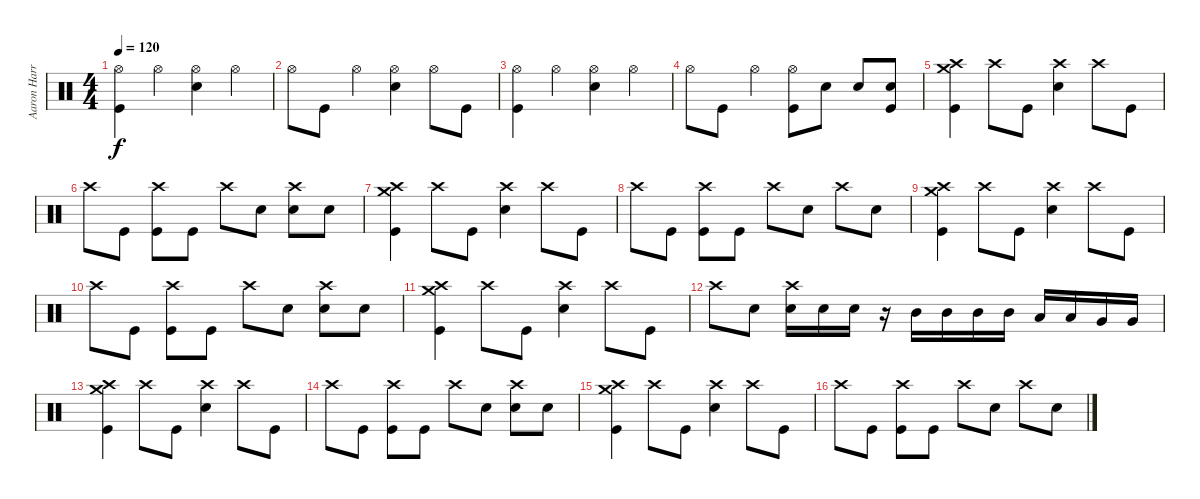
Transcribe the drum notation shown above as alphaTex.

\track ("Aaron Harris" "Aaron Harr") {instrument percussion}
\staff {score}
\articulation defaults
\ts (4 4)
\tempo 120
\clef neutral
\ks c
("Hi-Hat (open)" "Kick (hit)").4{dy f} "Hi-Hat (open)".4 ("Hi-Hat (open)" "Snare (hit) 2").4 "Hi-Hat (open)".4 |
"Hi-Hat (open)".8 "Kick (hit)".8 "Hi-Hat (open)".4 ("Hi-Hat (open)" "Snare (hit) 2").4 "Hi-Hat (open)".8 "Kick (hit)".8 |
("Hi-Hat (open)" "Kick (hit)").4 "Hi-Hat (open)".4 ("Hi-Hat (open)" "Snare (hit) 2").4 "Hi-Hat (open)".4 |
"Hi-Hat (open)".8 "Kick (hit)".8 "Hi-Hat (open)".4 ("Hi-Hat (open)" "Kick (hit)").8 "Snare (hit) 2".8 "Snare (hit) 2".8 ("Snare (hit) 2" "Kick (hit)").8 |
("Crash high (hit)" "Crash medium (hit)" "Kick (hit)").4 "Crash high (hit)".8 "Kick (hit)".8 ("Crash high (hit)" "Snare (hit) 2").4 "Crash high (hit)".8 "Kick (hit)".8 |
"Crash high (hit)".8 "Kick (hit)".8 ("Crash high (hit)" "Kick (hit)").8 "Kick (hit)".8 "Crash high (hit)".8 "Snare (hit) 2".8 ("Crash high (hit)" "Snare (hit) 2").8 "Snare (hit) 2".8 |
("Crash high (hit)" "Crash medium (hit)" "Kick (hit)").4 "Crash high (hit)".8 "Kick (hit)".8 ("Crash high (hit)" "Snare (hit) 2").4 "Crash high (hit)".8 "Kick (hit)".8 |
"Crash high (hit)".8 "Kick (hit)".8 ("Crash high (hit)" "Kick (hit)").8 "Kick (hit)".8 "Crash high (hit)".8 "Snare (hit) 2".8 "Crash high (hit)".8 "Snare (hit) 2".8 |
("Crash high (hit)" "Crash medium (hit)" "Kick (hit)").4 "Crash high (hit)".8 "Kick (hit)".8 ("Crash high (hit)" "Snare (hit) 2").4 "Crash high (hit)".8 "Kick (hit)".8 |
"Crash high (hit)".8 "Kick (hit)".8 ("Crash high (hit)" "Kick (hit)").8 "Kick (hit)".8 "Crash high (hit)".8 "Snare (hit) 2".8 ("Crash high (hit)" "Snare (hit) 2").8 "Snare (hit) 2".8 |
("Crash high (hit)" "Crash medium (hit)" "Kick (hit)").4 "Crash high (hit)".8 "Kick (hit)".8 ("Crash high (hit)" "Snare (hit) 2").4 "Crash high (hit)".8 "Kick (hit)".8 |
"Crash high (hit)".8 "Snare (hit) 2".8 ("Crash high (hit)" "Snare (hit) 2").16 "Snare (hit) 2".16 "Snare (hit) 2".16 r.16 "Mid Tom (hit)".16 "Mid Tom (hit)".16 "Mid Tom (hit)".16 "Mid Tom (hit)".16 "Low Tom (hit)".16 "Low Tom (hit)".16 "Very Low Tom (hit)".16 "Very Low Tom (hit)".16 |
("Crash high (hit)" "Crash medium (hit)" "Kick (hit)").4 "Crash high (hit)".8 "Kick (hit)".8 ("Crash high (hit)" "Snare (hit) 2").4 "Crash high (hit)".8 "Kick (hit)".8 |
"Crash high (hit)".8 "Kick (hit)".8 ("Crash high (hit)" "Kick (hit)").8 "Kick (hit)".8 "Crash high (hit)".8 "Snare (hit) 2".8 ("Crash high (hit)" "Snare (hit) 2").8 "Snare (hit) 2".8 |
("Crash high (hit)" "Crash medium (hit)" "Kick (hit)").4 "Crash high (hit)".8 "Kick (hit)".8 ("Crash high (hit)" "Snare (hit) 2").4 "Crash high (hit)".8 "Kick (hit)".8 |
"Crash high (hit)".8 "Kick (hit)".8 ("Crash high (hit)" "Kick (hit)").8 "Kick (hit)".8 "Crash high (hit)".8 "Snare (hit) 2".8 "Crash high (hit)".8 "Snare (hit) 2".8
